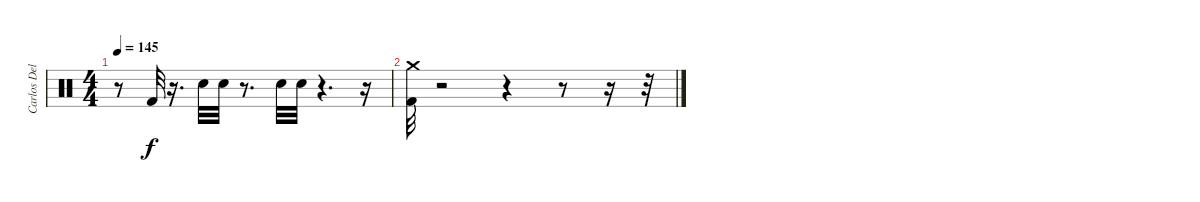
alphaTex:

\track ("Carlos Delgado" "Carlos Del") {instrument percussion}
\staff {score}
\articulation defaults
\ts (4 4)
\tempo 145
\clef neutral
\ks c
r.8{dy f} "Kick (hit) 2".32 r.16{d} "Electric Snare (hit)".32 "Electric Snare (hit)".32 r.8{d} "Electric Snare (hit)".32 "Electric Snare (hit)".32 r.4{d} r.16 |
("Kick (hit) 2" "Crash medium (hit)").32 r.2 r.4 r.8 r.16 r.32
